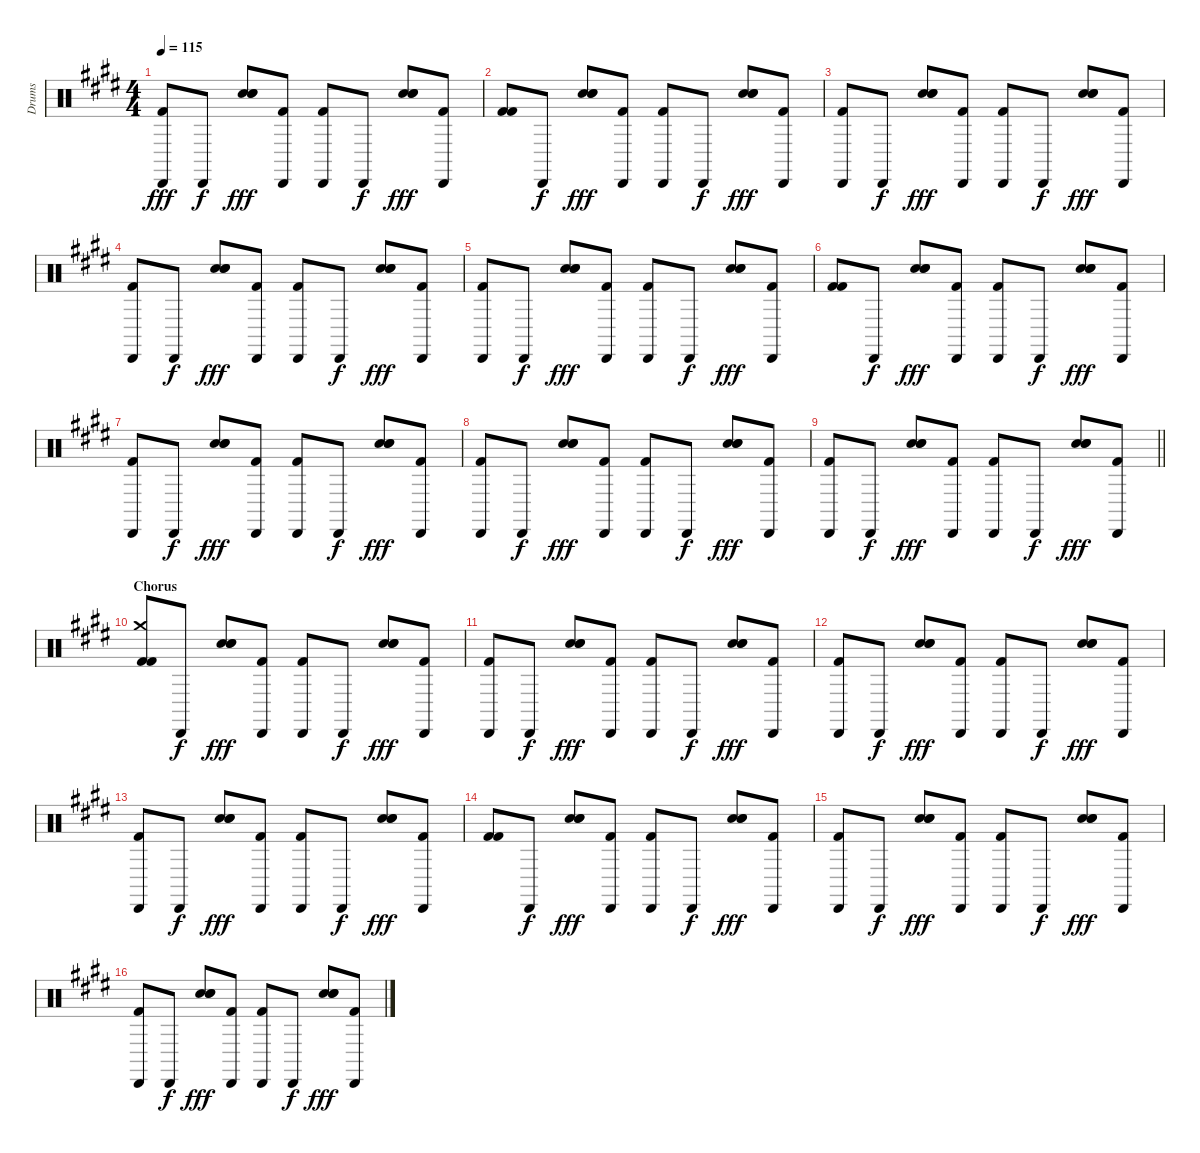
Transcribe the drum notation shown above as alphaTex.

\track ("Drums" "Drums") {instrument percussion}
\staff {score}
\articulation defaults
\ts (4 4)
\tempo 115
\clef neutral
\ks c#minor
("Cabasa (hit)" "Kick (hit) 2").8{dy fff} "Cabasa (hit)".8{dy f} ("Snare (hit) 2" "Hand Clap (hit)" "Hand Clap (hit)").8{bd 30 dy fff} ("Cabasa (hit)" "Kick (hit) 2").8 ("Cabasa (hit)" "Kick (hit) 2").8 "Cabasa (hit)".8{dy f} ("Snare (hit) 2" "Hand Clap (hit)" "Hand Clap (hit)").8{bd 30 dy fff} ("Cabasa (hit)" "Kick (hit) 2").8 |
("Kick (hit) 2" "Kick (hit) 2").8 "Cabasa (hit)".8{dy f} ("Snare (hit) 2" "Hand Clap (hit)" "Hand Clap (hit)").8{bd 30 dy fff} ("Cabasa (hit)" "Kick (hit) 2").8 ("Cabasa (hit)" "Kick (hit) 2").8 "Cabasa (hit)".8{dy f} ("Snare (hit) 2" "Hand Clap (hit)" "Hand Clap (hit)").8{bd 30 dy fff} ("Cabasa (hit)" "Kick (hit) 2").8 |
("Cabasa (hit)" "Kick (hit) 2").8 "Cabasa (hit)".8{dy f} ("Snare (hit) 2" "Hand Clap (hit)" "Hand Clap (hit)").8{bd 30 dy fff} ("Cabasa (hit)" "Kick (hit) 2").8 ("Cabasa (hit)" "Kick (hit) 2").8 "Cabasa (hit)".8{dy f} ("Snare (hit) 2" "Hand Clap (hit)" "Hand Clap (hit)").8{bd 30 dy fff} ("Cabasa (hit)" "Kick (hit) 2").8 |
("Cabasa (hit)" "Kick (hit) 2").8 "Cabasa (hit)".8{dy f} ("Snare (hit) 2" "Hand Clap (hit)" "Hand Clap (hit)").8{bd 30 dy fff} ("Cabasa (hit)" "Kick (hit) 2").8 ("Cabasa (hit)" "Kick (hit) 2").8 "Cabasa (hit)".8{dy f} ("Snare (hit) 2" "Hand Clap (hit)" "Hand Clap (hit)").8{bd 30 dy fff} ("Cabasa (hit)" "Kick (hit) 2").8 |
("Cabasa (hit)" "Kick (hit) 2").8 "Cabasa (hit)".8{dy f} ("Snare (hit) 2" "Hand Clap (hit)" "Hand Clap (hit)").8{bd 30 dy fff} ("Cabasa (hit)" "Kick (hit) 2").8 ("Cabasa (hit)" "Kick (hit) 2").8 "Cabasa (hit)".8{dy f} ("Snare (hit) 2" "Hand Clap (hit)" "Hand Clap (hit)").8{bd 30 dy fff} ("Cabasa (hit)" "Kick (hit) 2").8 |
("Kick (hit) 2" "Kick (hit) 2").8 "Cabasa (hit)".8{dy f} ("Snare (hit) 2" "Hand Clap (hit)" "Hand Clap (hit)").8{bd 30 dy fff} ("Cabasa (hit)" "Kick (hit) 2").8 ("Cabasa (hit)" "Kick (hit) 2").8 "Cabasa (hit)".8{dy f} ("Snare (hit) 2" "Hand Clap (hit)" "Hand Clap (hit)").8{bd 30 dy fff} ("Cabasa (hit)" "Kick (hit) 2").8 |
("Cabasa (hit)" "Kick (hit) 2").8 "Cabasa (hit)".8{dy f} ("Snare (hit) 2" "Hand Clap (hit)" "Hand Clap (hit)").8{bd 30 dy fff} ("Cabasa (hit)" "Kick (hit) 2").8 ("Cabasa (hit)" "Kick (hit) 2").8 "Cabasa (hit)".8{dy f} ("Snare (hit) 2" "Hand Clap (hit)" "Hand Clap (hit)").8{bd 30 dy fff} ("Cabasa (hit)" "Kick (hit) 2").8 |
("Cabasa (hit)" "Kick (hit) 2").8 "Cabasa (hit)".8{dy f} ("Snare (hit) 2" "Hand Clap (hit)" "Hand Clap (hit)").8{bd 30 dy fff} ("Cabasa (hit)" "Kick (hit) 2").8 ("Cabasa (hit)" "Kick (hit) 2").8 "Cabasa (hit)".8{dy f} ("Snare (hit) 2" "Hand Clap (hit)" "Hand Clap (hit)").8{bd 30 dy fff} ("Cabasa (hit)" "Kick (hit) 2").8 |
\barLineRight lightlight
("Cabasa (hit)" "Kick (hit) 2").8 "Cabasa (hit)".8{dy f} ("Snare (hit) 2" "Hand Clap (hit)" "Hand Clap (hit)").8{bd 30 dy fff} ("Cabasa (hit)" "Kick (hit) 2").8 ("Cabasa (hit)" "Kick (hit) 2").8 "Cabasa (hit)".8{dy f} ("Snare (hit) 2" "Hand Clap (hit)" "Hand Clap (hit)").8{bd 30 dy fff} ("Cabasa (hit)" "Kick (hit) 2").8 |
\section ("" "Chorus")
("Crash medium (hit)" "Kick (hit) 2" "Kick (hit) 2").8 "Cabasa (hit)".8{dy f} ("Snare (hit) 2" "Hand Clap (hit)" "Hand Clap (hit)").8{bd 30 dy fff} ("Cabasa (hit)" "Kick (hit) 2").8 ("Cabasa (hit)" "Kick (hit) 2").8 "Cabasa (hit)".8{dy f} ("Snare (hit) 2" "Hand Clap (hit)" "Hand Clap (hit)").8{bd 30 dy fff} ("Cabasa (hit)" "Kick (hit) 2").8 |
("Cabasa (hit)" "Kick (hit) 2").8 "Cabasa (hit)".8{dy f} ("Snare (hit) 2" "Hand Clap (hit)" "Hand Clap (hit)").8{bd 30 dy fff} ("Cabasa (hit)" "Kick (hit) 2").8 ("Cabasa (hit)" "Kick (hit) 2").8 "Cabasa (hit)".8{dy f} ("Snare (hit) 2" "Hand Clap (hit)" "Hand Clap (hit)").8{bd 30 dy fff} ("Cabasa (hit)" "Kick (hit) 2").8 |
("Cabasa (hit)" "Kick (hit) 2").8 "Cabasa (hit)".8{dy f} ("Snare (hit) 2" "Hand Clap (hit)" "Hand Clap (hit)").8{bd 30 dy fff} ("Cabasa (hit)" "Kick (hit) 2").8 ("Cabasa (hit)" "Kick (hit) 2").8 "Cabasa (hit)".8{dy f} ("Snare (hit) 2" "Hand Clap (hit)" "Hand Clap (hit)").8{bd 30 dy fff} ("Cabasa (hit)" "Kick (hit) 2").8 |
("Cabasa (hit)" "Kick (hit) 2").8 "Cabasa (hit)".8{dy f} ("Snare (hit) 2" "Hand Clap (hit)" "Hand Clap (hit)").8{bd 30 dy fff} ("Cabasa (hit)" "Kick (hit) 2").8 ("Cabasa (hit)" "Kick (hit) 2").8 "Cabasa (hit)".8{dy f} ("Snare (hit) 2" "Hand Clap (hit)" "Hand Clap (hit)").8{bd 30 dy fff} ("Cabasa (hit)" "Kick (hit) 2").8 |
("Kick (hit) 2" "Kick (hit) 2").8 "Cabasa (hit)".8{dy f} ("Snare (hit) 2" "Hand Clap (hit)" "Hand Clap (hit)").8{bd 30 dy fff} ("Cabasa (hit)" "Kick (hit) 2").8 ("Cabasa (hit)" "Kick (hit) 2").8 "Cabasa (hit)".8{dy f} ("Snare (hit) 2" "Hand Clap (hit)" "Hand Clap (hit)").8{bd 30 dy fff} ("Cabasa (hit)" "Kick (hit) 2").8 |
("Cabasa (hit)" "Kick (hit) 2").8 "Cabasa (hit)".8{dy f} ("Snare (hit) 2" "Hand Clap (hit)" "Hand Clap (hit)").8{bd 30 dy fff} ("Cabasa (hit)" "Kick (hit) 2").8 ("Cabasa (hit)" "Kick (hit) 2").8 "Cabasa (hit)".8{dy f} ("Snare (hit) 2" "Hand Clap (hit)" "Hand Clap (hit)").8{bd 30 dy fff} ("Cabasa (hit)" "Kick (hit) 2").8 |
("Cabasa (hit)" "Kick (hit) 2").8 "Cabasa (hit)".8{dy f} ("Snare (hit) 2" "Hand Clap (hit)" "Hand Clap (hit)").8{bd 30 dy fff} ("Cabasa (hit)" "Kick (hit) 2").8 ("Cabasa (hit)" "Kick (hit) 2").8 "Cabasa (hit)".8{dy f} ("Snare (hit) 2" "Hand Clap (hit)" "Hand Clap (hit)").8{bd 30 dy fff} ("Cabasa (hit)" "Kick (hit) 2").8
